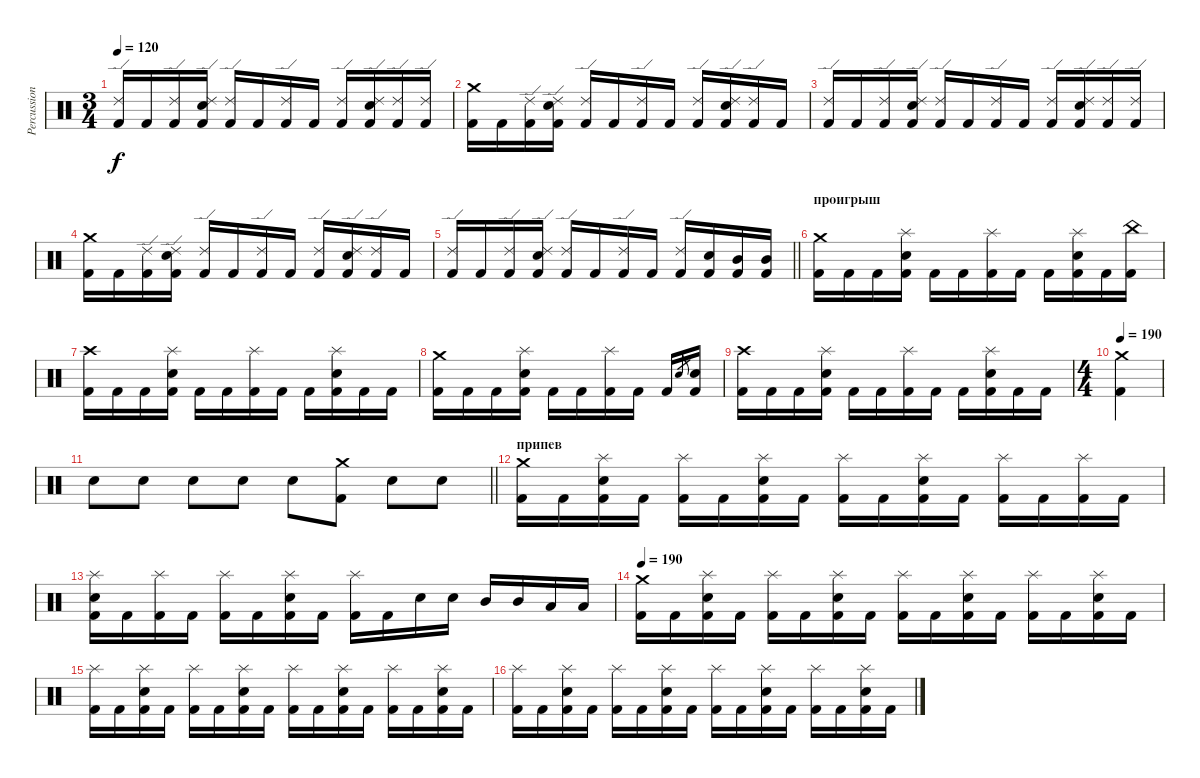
\track ("Percussion" "Percussion") {instrument percussion}
\staff {score}
\articulation defaults
\ts (3 4)
\tempo 120
\clef neutral
\ks c
("Kick (hit) 2" "Ride (edge) 2").16{dy f} "Kick (hit) 2".16 ("Kick (hit) 2" "Ride (edge) 2").16 ("Kick (hit) 2" "Electric Snare (hit)" "Ride (edge) 2").16 ("Kick (hit) 2" "Ride (edge) 2").16 "Kick (hit) 2".16 ("Kick (hit) 2" "Ride (edge) 2").16 "Kick (hit) 2".16 ("Kick (hit) 2" "Ride (edge) 2").16 ("Kick (hit) 2" "Electric Snare (hit)" "Ride (edge) 2").16 ("Kick (hit) 2" "Ride (edge) 2").16 ("Kick (hit) 2" "Ride (edge) 2").16 |
("Kick (hit) 2" "Crash medium (hit)").16 "Kick (hit) 2".16 ("Kick (hit) 2" "Ride (edge) 2").16 ("Kick (hit) 2" "Electric Snare (hit)" "Ride (edge) 2").16 ("Kick (hit) 2" "Ride (edge) 2").16 "Kick (hit) 2".16 ("Kick (hit) 2" "Ride (edge) 2").16 "Kick (hit) 2".16 ("Kick (hit) 2" "Ride (edge) 2").16 ("Kick (hit) 2" "Electric Snare (hit)" "Ride (edge) 2").16 ("Kick (hit) 2" "Ride (edge) 2").16 "Kick (hit) 2".16 |
("Kick (hit) 2" "Ride (edge) 2").16 "Kick (hit) 2".16 ("Kick (hit) 2" "Ride (edge) 2").16 ("Kick (hit) 2" "Electric Snare (hit)" "Ride (edge) 2").16 ("Kick (hit) 2" "Ride (edge) 2").16 "Kick (hit) 2".16 ("Kick (hit) 2" "Ride (edge) 2").16 "Kick (hit) 2".16 ("Kick (hit) 2" "Ride (edge) 2").16 ("Kick (hit) 2" "Electric Snare (hit)" "Ride (edge) 2").16 ("Kick (hit) 2" "Ride (edge) 2").16 ("Kick (hit) 2" "Ride (edge) 2").16 |
("Kick (hit) 2" "Crash medium (hit)").16 "Kick (hit) 2".16 ("Kick (hit) 2" "Ride (edge) 2").16 ("Kick (hit) 2" "Electric Snare (hit)" "Ride (edge) 2").16 ("Kick (hit) 2" "Ride (edge) 2").16 "Kick (hit) 2".16 ("Kick (hit) 2" "Ride (edge) 2").16 "Kick (hit) 2".16 ("Kick (hit) 2" "Ride (edge) 2").16 ("Kick (hit) 2" "Electric Snare (hit)" "Ride (edge) 2").16 ("Kick (hit) 2" "Ride (edge) 2").16 "Kick (hit) 2".16 |
\barLineRight lightlight
("Kick (hit) 2" "Ride (edge) 2").16 "Kick (hit) 2".16 ("Kick (hit) 2" "Ride (edge) 2").16 ("Kick (hit) 2" "Electric Snare (hit)" "Ride (edge) 2").16 ("Kick (hit) 2" "Ride (edge) 2").16 "Kick (hit) 2".16 ("Kick (hit) 2" "Ride (edge) 2").16 "Kick (hit) 2".16 ("Kick (hit) 2" "Ride (edge) 2").16 ("Kick (hit) 2" "Electric Snare (hit)").16 ("Kick (hit) 2" "Mid Tom (hit)").16 ("Kick (hit) 2" "Mid Tom (hit)").16 |
\section ("" "проигрыш")
("Kick (hit) 2" "Crash medium (hit)").16 "Kick (hit) 2".16 "Kick (hit) 2".16 ("Kick (hit) 2" "Electric Snare (hit)" "Splash (hit)").16 "Kick (hit) 2".16 "Kick (hit) 2".16 ("Kick (hit) 2" "Splash (hit)").16 "Kick (hit) 2".16 "Kick (hit) 2".16 ("Kick (hit) 2" "Electric Snare (hit)" "Splash (hit)").16 "Kick (hit) 2".16 ("Kick (hit) 2" "China (hit)").16 |
("Kick (hit) 2" "Crash high (hit)").16 "Kick (hit) 2".16 "Kick (hit) 2".16 ("Kick (hit) 2" "Electric Snare (hit)" "Splash (hit)").16 "Kick (hit) 2".16 "Kick (hit) 2".16 ("Kick (hit) 2" "Splash (hit)").16 "Kick (hit) 2".16 "Kick (hit) 2".16 ("Kick (hit) 2" "Electric Snare (hit)" "Splash (hit)").16 "Kick (hit) 2".16 "Kick (hit) 2".16 |
("Kick (hit) 2" "Crash medium (hit)").16 "Kick (hit) 2".16 "Kick (hit) 2".16 ("Kick (hit) 2" "Electric Snare (hit)" "Splash (hit)").16 "Kick (hit) 2".16 "Kick (hit) 2".16 ("Kick (hit) 2" "Splash (hit)").16 "Kick (hit) 2".16 "Kick (hit) 2".16 "Electric Snare (hit)".8{gr} ("Kick (hit) 2" "Electric Snare (hit)").16 |
("Kick (hit) 2" "Crash high (hit)").16 "Kick (hit) 2".16 "Kick (hit) 2".16 ("Kick (hit) 2" "Electric Snare (hit)" "Splash (hit)").16 "Kick (hit) 2".16 "Kick (hit) 2".16 ("Kick (hit) 2" "Splash (hit)").16 "Kick (hit) 2".16 "Kick (hit) 2".16 ("Kick (hit) 2" "Electric Snare (hit)" "Splash (hit)").16 "Kick (hit) 2".16 "Kick (hit) 2".16 |
\ts (4 4)
\tempo 190
("Kick (hit) 2" "Crash medium (hit)").4 |
\barLineRight lightlight "Snare (hit)".8 "Snare (hit)".8 "Snare (hit)".8 "Snare (hit)".8 "Snare (hit)".8
("Crash medium (hit)" "Kick (hit) 2").8 "Snare (hit)".8 "Snare (hit)".8 |
\section ("" "припев")
("Crash medium (hit)" "Kick (hit) 2").16 "Kick (hit) 2".16 ("Splash (hit)" "Kick (hit) 2" "Electric Snare (hit)").16 "Kick (hit) 2".16 ("Splash (hit)" "Kick (hit) 2").16 "Kick (hit) 2".16 ("Splash (hit)" "Kick (hit) 2" "Electric Snare (hit)").16 "Kick (hit) 2".16 ("Splash (hit)" "Kick (hit) 2").16 "Kick (hit) 2".16 ("Splash (hit)" "Kick (hit) 2" "Electric Snare (hit)").16 "Kick (hit) 2".16 ("Splash (hit)" "Kick (hit) 2").16 "Kick (hit) 2".16 ("Splash (hit)" "Kick (hit) 2").16 "Kick (hit) 2".16 |
("Splash (hit)" "Kick (hit) 2" "Electric Snare (hit)").16 "Kick (hit) 2".16 ("Splash (hit)" "Kick (hit) 2").16 "Kick (hit) 2".16 ("Splash (hit)" "Kick (hit) 2").16 "Kick (hit) 2".16 ("Splash (hit)" "Kick (hit) 2" "Electric Snare (hit)").16 "Kick (hit) 2".16 ("Splash (hit)" "Kick (hit) 2").16 "Kick (hit) 2".16 "Electric Snare (hit)".16 "Electric Snare (hit)".16 "Mid Tom (hit)".16 "Mid Tom (hit)".16 "Low Tom (hit)".16 "Low Tom (hit)".16 |
\tempo 190
("Crash medium (hit)" "Kick (hit) 2").16 "Kick (hit) 2".16 ("Splash (hit)" "Kick (hit) 2" "Electric Snare (hit)").16 "Kick (hit) 2".16 ("Splash (hit)" "Kick (hit) 2").16 "Kick (hit) 2".16 ("Splash (hit)" "Kick (hit) 2" "Electric Snare (hit)").16 "Kick (hit) 2".16 ("Splash (hit)" "Kick (hit) 2").16 "Kick (hit) 2".16 ("Splash (hit)" "Kick (hit) 2" "Electric Snare (hit)").16 "Kick (hit) 2".16 ("Splash (hit)" "Kick (hit) 2").16 "Kick (hit) 2".16 ("Splash (hit)" "Kick (hit) 2" "Electric Snare (hit)").16 "Kick (hit) 2".16 |
("Splash (hit)" "Kick (hit) 2").16 "Kick (hit) 2".16 ("Splash (hit)" "Kick (hit) 2" "Electric Snare (hit)").16 "Kick (hit) 2".16 ("Splash (hit)" "Kick (hit) 2").16 "Kick (hit) 2".16 ("Splash (hit)" "Kick (hit) 2" "Electric Snare (hit)").16 "Kick (hit) 2".16 ("Splash (hit)" "Kick (hit) 2").16 "Kick (hit) 2".16 ("Splash (hit)" "Kick (hit) 2" "Electric Snare (hit)").16 "Kick (hit) 2".16 ("Splash (hit)" "Kick (hit) 2").16 "Kick (hit) 2".16 ("Splash (hit)" "Kick (hit) 2" "Electric Snare (hit)").16 "Kick (hit) 2".16 |
("Splash (hit)" "Kick (hit) 2").16 "Kick (hit) 2".16 ("Splash (hit)" "Kick (hit) 2" "Electric Snare (hit)").16 "Kick (hit) 2".16 ("Splash (hit)" "Kick (hit) 2").16 "Kick (hit) 2".16 ("Splash (hit)" "Kick (hit) 2" "Electric Snare (hit)").16 "Kick (hit) 2".16 ("Splash (hit)" "Kick (hit) 2").16 "Kick (hit) 2".16 ("Splash (hit)" "Kick (hit) 2" "Electric Snare (hit)").16 "Kick (hit) 2".16 ("Splash (hit)" "Kick (hit) 2").16 "Kick (hit) 2".16 ("Splash (hit)" "Kick (hit) 2" "Electric Snare (hit)").16 "Kick (hit) 2".16
